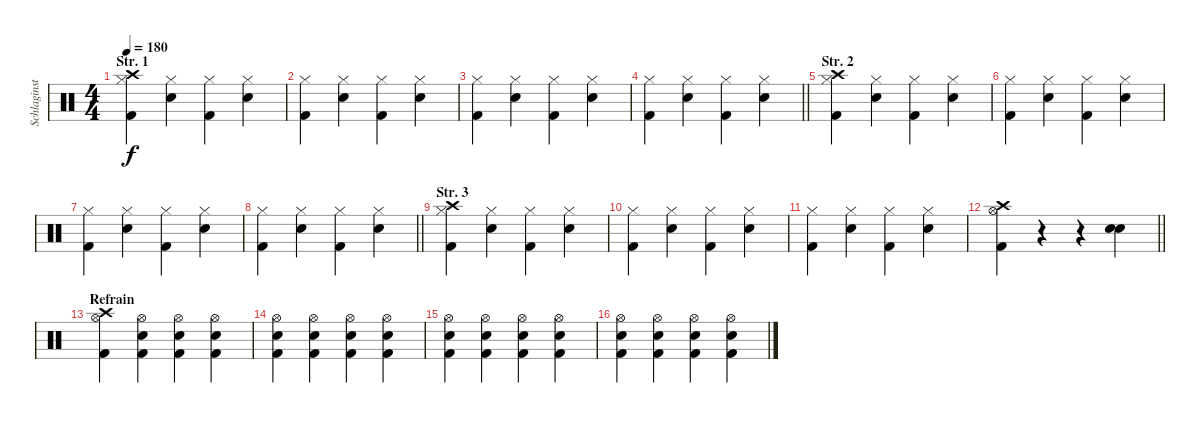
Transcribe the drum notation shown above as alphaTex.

\track ("Schlaginstrumente - Auswahl" "Schlaginst") {instrument percussion}
\staff {score}
\articulation defaults
\ts (4 4)
\section ("" "Str. 1")
\tempo 180
\clef neutral
\ks c
("Crash high (hit)" "Hi-Hat (closed)" "Kick (hit) 2").4{dy f} ("Hi-Hat (closed)" "Electric Snare (hit)").4 ("Hi-Hat (closed)" "Kick (hit) 2").4 ("Hi-Hat (closed)" "Electric Snare (hit)").4 |
("Hi-Hat (closed)" "Kick (hit) 2").4 ("Hi-Hat (closed)" "Electric Snare (hit)").4 ("Hi-Hat (closed)" "Kick (hit) 2").4 ("Hi-Hat (closed)" "Electric Snare (hit)").4 |
("Hi-Hat (closed)" "Kick (hit) 2").4 ("Hi-Hat (closed)" "Electric Snare (hit)").4 ("Hi-Hat (closed)" "Kick (hit) 2").4 ("Hi-Hat (closed)" "Electric Snare (hit)").4 |
\barLineRight lightlight
("Hi-Hat (closed)" "Kick (hit) 2").4 ("Hi-Hat (closed)" "Electric Snare (hit)").4 ("Hi-Hat (closed)" "Kick (hit) 2").4 ("Hi-Hat (closed)" "Electric Snare (hit)").4 |
\section ("" "Str. 2")
("Crash high (hit)" "Hi-Hat (closed)" "Kick (hit) 2").4 ("Hi-Hat (closed)" "Electric Snare (hit)").4 ("Hi-Hat (closed)" "Kick (hit) 2").4 ("Hi-Hat (closed)" "Electric Snare (hit)").4 |
("Hi-Hat (closed)" "Kick (hit) 2").4 ("Hi-Hat (closed)" "Electric Snare (hit)").4 ("Hi-Hat (closed)" "Kick (hit) 2").4 ("Hi-Hat (closed)" "Electric Snare (hit)").4 |
("Hi-Hat (closed)" "Kick (hit) 2").4 ("Hi-Hat (closed)" "Electric Snare (hit)").4 ("Hi-Hat (closed)" "Kick (hit) 2").4 ("Hi-Hat (closed)" "Electric Snare (hit)").4 |
\barLineRight lightlight
("Hi-Hat (closed)" "Kick (hit) 2").4 ("Hi-Hat (closed)" "Electric Snare (hit)").4 ("Hi-Hat (closed)" "Kick (hit) 2").4 ("Hi-Hat (closed)" "Electric Snare (hit)").4 |
\section ("" "Str. 3")
("Crash high (hit)" "Hi-Hat (closed)" "Kick (hit) 2").4 ("Hi-Hat (closed)" "Electric Snare (hit)").4 ("Hi-Hat (closed)" "Kick (hit) 2").4 ("Hi-Hat (closed)" "Electric Snare (hit)").4 |
("Hi-Hat (closed)" "Kick (hit) 2").4 ("Hi-Hat (closed)" "Electric Snare (hit)").4 ("Hi-Hat (closed)" "Kick (hit) 2").4 ("Hi-Hat (closed)" "Electric Snare (hit)").4 |
("Hi-Hat (closed)" "Kick (hit) 2").4 ("Hi-Hat (closed)" "Electric Snare (hit)").4 ("Hi-Hat (closed)" "Kick (hit) 2").4 ("Hi-Hat (closed)" "Electric Snare (hit)").4 |
\barLineRight lightlight
("Crash high (hit)" "Hi-Hat (open)" "Kick (hit) 2").4 r.4 r.4 ("Electric Snare (hit)" "Electric Snare (hit)").4 |
\section ("" "Refrain")
("Crash high (hit)" "Hi-Hat (open)" "Kick (hit) 2").4 ("Hi-Hat (open)" "Electric Snare (hit)" "Kick (hit) 2").4 ("Hi-Hat (open)" "Electric Snare (hit)" "Kick (hit) 2").4 ("Hi-Hat (open)" "Electric Snare (hit)" "Kick (hit) 2").4 |
("Hi-Hat (open)" "Electric Snare (hit)" "Kick (hit) 2").4 ("Hi-Hat (open)" "Electric Snare (hit)" "Kick (hit) 2").4 ("Hi-Hat (open)" "Electric Snare (hit)" "Kick (hit) 2").4 ("Hi-Hat (open)" "Electric Snare (hit)" "Kick (hit) 2").4 |
("Hi-Hat (open)" "Electric Snare (hit)" "Kick (hit) 2").4 ("Hi-Hat (open)" "Electric Snare (hit)" "Kick (hit) 2").4 ("Hi-Hat (open)" "Electric Snare (hit)" "Kick (hit) 2").4 ("Hi-Hat (open)" "Electric Snare (hit)" "Kick (hit) 2").4 |
("Hi-Hat (open)" "Electric Snare (hit)" "Kick (hit) 2").4 ("Hi-Hat (open)" "Electric Snare (hit)" "Kick (hit) 2").4 ("Hi-Hat (open)" "Electric Snare (hit)" "Kick (hit) 2").4 ("Hi-Hat (open)" "Electric Snare (hit)" "Kick (hit) 2").4
